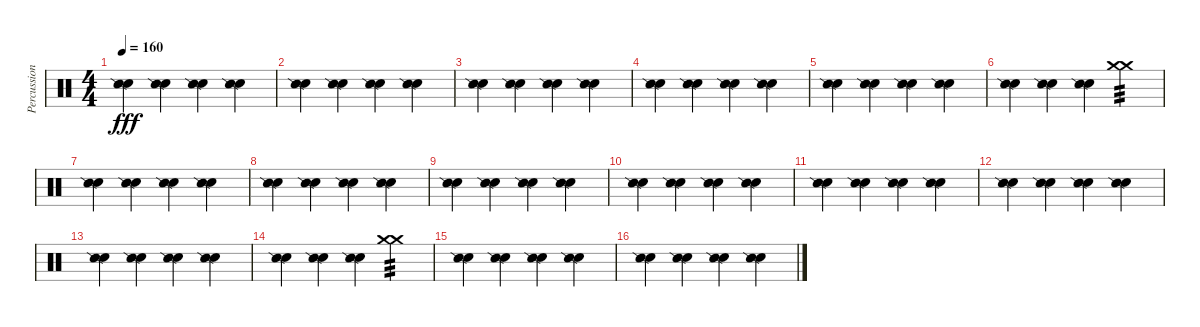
\track ("Percussion 2" "Percussion") {instrument percussion}
\staff {score}
\articulation defaults
\ts (4 4)
\tempo 160
\clef neutral
\ks c
("Hand Clap (hit)" "Snare (side stick) 2").4{dy fff} ("Hand Clap (hit)" "Snare (side stick) 2").4 ("Hand Clap (hit)" "Snare (side stick) 2").4 ("Hand Clap (hit)" "Snare (side stick) 2").4 |
("Hand Clap (hit)" "Snare (side stick) 2").4 ("Hand Clap (hit)" "Snare (side stick) 2").4 ("Hand Clap (hit)" "Snare (side stick) 2").4 ("Hand Clap (hit)" "Snare (side stick) 2").4 |
("Hand Clap (hit)" "Snare (side stick) 2").4 ("Hand Clap (hit)" "Snare (side stick) 2").4 ("Hand Clap (hit)" "Snare (side stick) 2").4 ("Hand Clap (hit)" "Snare (side stick) 2").4 |
("Hand Clap (hit)" "Snare (side stick) 2").4 ("Hand Clap (hit)" "Snare (side stick) 2").4 ("Hand Clap (hit)" "Snare (side stick) 2").4 ("Hand Clap (hit)" "Snare (side stick) 2").4 |
("Hand Clap (hit)" "Snare (side stick) 2").4 ("Hand Clap (hit)" "Snare (side stick) 2").4 ("Hand Clap (hit)" "Snare (side stick) 2").4 ("Hand Clap (hit)" "Snare (side stick) 2").4 |
("Hand Clap (hit)" "Snare (side stick) 2").4 ("Hand Clap (hit)" "Snare (side stick) 2").4 ("Hand Clap (hit)" "Snare (side stick) 2").4 ("Crash medium (hit)" "Crash medium (hit)").4{tp 3} |
("Hand Clap (hit)" "Snare (side stick) 2").4 ("Hand Clap (hit)" "Snare (side stick) 2").4 ("Hand Clap (hit)" "Snare (side stick) 2").4 ("Hand Clap (hit)" "Snare (side stick) 2").4 |
("Hand Clap (hit)" "Snare (side stick) 2").4 ("Hand Clap (hit)" "Snare (side stick) 2").4 ("Hand Clap (hit)" "Snare (side stick) 2").4 ("Hand Clap (hit)" "Snare (side stick) 2").4 |
("Hand Clap (hit)" "Snare (side stick) 2").4 ("Hand Clap (hit)" "Snare (side stick) 2").4 ("Hand Clap (hit)" "Snare (side stick) 2").4 ("Hand Clap (hit)" "Snare (side stick) 2").4 |
("Hand Clap (hit)" "Snare (side stick) 2").4 ("Hand Clap (hit)" "Snare (side stick) 2").4 ("Hand Clap (hit)" "Snare (side stick) 2").4 ("Hand Clap (hit)" "Snare (side stick) 2").4 |
("Hand Clap (hit)" "Snare (side stick) 2").4 ("Hand Clap (hit)" "Snare (side stick) 2").4 ("Hand Clap (hit)" "Snare (side stick) 2").4 ("Hand Clap (hit)" "Snare (side stick) 2").4 |
("Hand Clap (hit)" "Snare (side stick) 2").4 ("Hand Clap (hit)" "Snare (side stick) 2").4 ("Hand Clap (hit)" "Snare (side stick) 2").4 ("Hand Clap (hit)" "Snare (side stick) 2").4 |
("Hand Clap (hit)" "Snare (side stick) 2").4 ("Hand Clap (hit)" "Snare (side stick) 2").4 ("Hand Clap (hit)" "Snare (side stick) 2").4 ("Hand Clap (hit)" "Snare (side stick) 2").4 |
("Hand Clap (hit)" "Snare (side stick) 2").4 ("Hand Clap (hit)" "Snare (side stick) 2").4 ("Hand Clap (hit)" "Snare (side stick) 2").4 ("Crash medium (hit)" "Crash medium (hit)").4{tp 3} |
("Hand Clap (hit)" "Snare (side stick) 2").4 ("Hand Clap (hit)" "Snare (side stick) 2").4 ("Hand Clap (hit)" "Snare (side stick) 2").4 ("Hand Clap (hit)" "Snare (side stick) 2").4 |
("Hand Clap (hit)" "Snare (side stick) 2").4 ("Hand Clap (hit)" "Snare (side stick) 2").4 ("Hand Clap (hit)" "Snare (side stick) 2").4 ("Hand Clap (hit)" "Snare (side stick) 2").4
